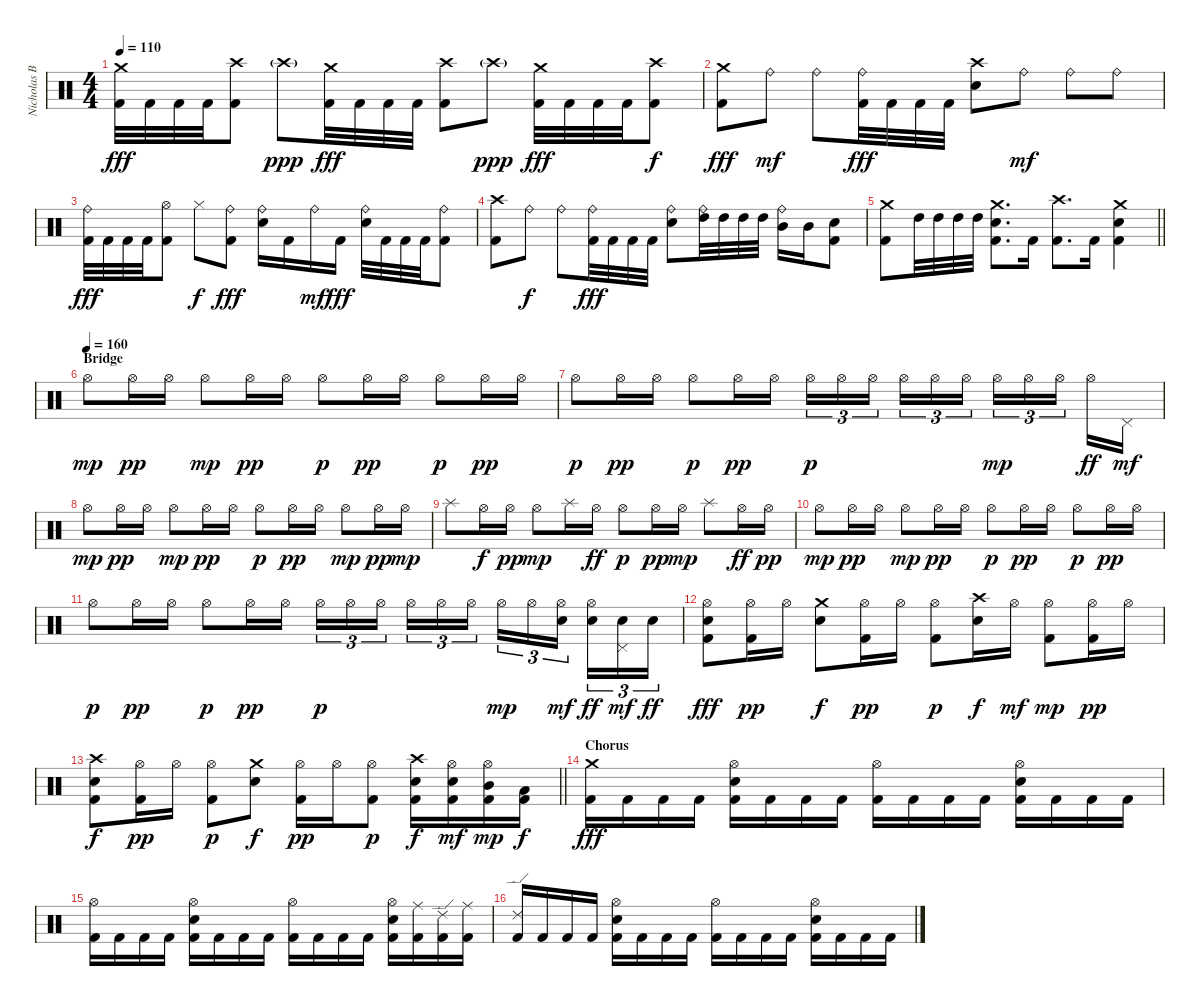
\track ("Nicholas Barker" "Nicholas B") {instrument percussion}
\staff {score}
\articulation defaults
\ts (4 4)
\tempo 110
\clef neutral
\ks c
("Crash medium (hit)" "Kick (hit) 2").32{dy fff} "Kick (hit) 2".32 "Kick (hit) 2".32 "Kick (hit) 2".32 ("Crash high (hit)" "Kick (hit) 2").8 "Crash high (hit)"{g}.8{dy ppp} ("Crash medium (hit)" "Kick (hit) 2").32{dy fff} "Kick (hit) 2".32 "Kick (hit) 2".32 "Kick (hit) 2".32 ("Crash high (hit)" "Kick (hit) 2").8 "Crash high (hit)"{g}.8{dy ppp} ("Crash medium (hit)" "Kick (hit) 2").32{dy fff} "Kick (hit) 2".32 "Kick (hit) 2".32 "Kick (hit) 2".32 ("Crash high (hit)" "Kick (hit) 2").8{dy f} |
("Crash medium (hit)" "Kick (hit) 2").8{dy fff} "Ride (bell)".8{dy mf} "Ride (bell)".8 ("Ride (bell)" "Kick (hit) 2").32{dy fff} "Kick (hit) 2".32 "Kick (hit) 2".32 "Kick (hit) 2".32 ("Crash high (hit)" "Snare (hit) 2").8 "Ride (bell)".8{dy mf} "Ride (bell)".8 "Ride (bell)".8 |
("Ride (bell)" "Kick (hit) 2").32{dy fff} "Kick (hit) 2".32 "Kick (hit) 2".32 "Kick (hit) 2".32 ("Hi-Hat (open)" "Kick (hit) 2").8 "Hi-Hat (closed)".8{dy f} ("Ride (bell)" "Kick (hit) 2").8{dy fff} ("Ride (bell)" "Snare (hit) 2").16 "Kick (hit) 2".16 "Ride (bell)".16{dy mf} "Kick (hit) 2".16{dy fff} ("Ride (bell)" "Snare (hit) 2").32 "Kick (hit) 2".32 "Kick (hit) 2".32 "Kick (hit) 2".32 ("Ride (bell)" "Kick (hit) 2").8 |
("Crash high (hit)" "Kick (hit) 2").8 "Ride (bell)".8{dy f} "Ride (bell)".8 ("Ride (bell)" "Kick (hit) 2").32{dy fff} "Kick (hit) 2".32 "Kick (hit) 2".32 "Kick (hit) 2".32 ("Ride (bell)" "Snare (hit) 2").8 ("Ride (bell)" "High Tom (hit)").32 "High Tom (hit)".32 "High Tom (hit)".32 "High Tom (hit)".32 ("Ride (bell)" "Mid Tom (hit)").16 "Mid Tom (hit)".16 ("Snare (hit) 2" "Kick (hit) 2").8 |
\barLineRight lightlight
("Crash medium (hit)" "Kick (hit) 2").8 "High Tom (hit)".32 "High Tom (hit)".32 "High Tom (hit)".32 "High Tom (hit)".32 ("Crash medium (hit)" "Snare (hit) 2" "Kick (hit) 2").8{d} "Kick (hit) 2".16 ("Crash high (hit)" "Kick (hit) 2").8{d} "Kick (hit) 2".16 ("Crash medium (hit)" "Snare (hit) 2" "Kick (hit) 2").4 |
\section ("" "Bridge")
\tempo (160)
"Hi-Hat (open)".8{dy mp} "Hi-Hat (open)".16{dy pp} "Hi-Hat (open)".16 "Hi-Hat (open)".8{dy mp} "Hi-Hat (open)".16{dy pp} "Hi-Hat (open)".16 "Hi-Hat (open)".8{dy p} "Hi-Hat (open)".16{dy pp} "Hi-Hat (open)".16 "Hi-Hat (open)".8{dy p} "Hi-Hat (open)".16{dy pp} "Hi-Hat (open)".16 |
"Hi-Hat (open)".8{dy p} "Hi-Hat (open)".16{dy pp} "Hi-Hat (open)".16 "Hi-Hat (open)".8{dy p} "Hi-Hat (open)".16{dy pp} "Hi-Hat (open)".16 "Hi-Hat (open)".16{tu (3 2) dy p} "Hi-Hat (open)".16{tu (3 2)} "Hi-Hat (open)".16{tu (3 2) beam splitsecondary} "Hi-Hat (open)".16{tu (3 2)} "Hi-Hat (open)".16{tu (3 2)} "Hi-Hat (open)".16{tu (3 2)} "Hi-Hat (open)".16{tu (3 2) dy mp} "Hi-Hat (open)".16{tu (3 2)} "Hi-Hat (open)".16{tu (3 2) beam splitsecondary} "Hi-Hat (open)".16{dy ff} "Pedal Hi-Hat (hit)".16{dy mf} |
"Hi-Hat (open)".8{dy mp} "Hi-Hat (open)".16{dy pp} "Hi-Hat (open)".16 "Hi-Hat (open)".8{dy mp} "Hi-Hat (open)".16{dy pp} "Hi-Hat (open)".16 "Hi-Hat (open)".8{dy p} "Hi-Hat (open)".16{dy pp} "Hi-Hat (open)".16 "Hi-Hat (open)".8{dy mp} "Hi-Hat (open)".16{dy pp} "Hi-Hat (open)".16{dy mp} |
"Splash (hit)".8 "Hi-Hat (open)".16{dy f} "Hi-Hat (open)".16{dy pp} "Hi-Hat (open)".8{dy mp} "Splash (hit)".16 "Hi-Hat (open)".16{dy ff} "Hi-Hat (open)".8{dy p} "Hi-Hat (open)".16{dy pp} "Hi-Hat (open)".16{dy mp} "Splash (hit)".8 "Hi-Hat (open)".16{dy ff} "Hi-Hat (open)".16{dy pp} |
"Hi-Hat (open)".8{dy mp} "Hi-Hat (open)".16{dy pp} "Hi-Hat (open)".16 "Hi-Hat (open)".8{dy mp} "Hi-Hat (open)".16{dy pp} "Hi-Hat (open)".16 "Hi-Hat (open)".8{dy p} "Hi-Hat (open)".16{dy pp} "Hi-Hat (open)".16 "Hi-Hat (open)".8{dy p} "Hi-Hat (open)".16{dy pp} "Hi-Hat (open)".16 |
"Hi-Hat (open)".8{dy p} "Hi-Hat (open)".16{dy pp} "Hi-Hat (open)".16 "Hi-Hat (open)".8{dy p} "Hi-Hat (open)".16{dy pp} "Hi-Hat (open)".16 "Hi-Hat (open)".16{tu (3 2) dy p} "Hi-Hat (open)".16{tu (3 2)} "Hi-Hat (open)".16{tu (3 2) beam splitsecondary} "Hi-Hat (open)".16{tu (3 2)} "Hi-Hat (open)".16{tu (3 2)} "Hi-Hat (open)".16{tu (3 2)} "Hi-Hat (open)".16{tu (3 2) dy mp} "Hi-Hat (open)".16{tu (3 2)} ("Hi-Hat (open)" "Snare (hit) 2").16{tu (3 2) dy mf beam splitsecondary} ("Hi-Hat (open)" "Snare (hit) 2").16{tu (3 2) dy ff} ("Pedal Hi-Hat (hit)" "Snare (hit) 2").16{tu (3 2) dy mf} "Snare (hit) 2".16{tu (3 2) dy ff} |
("Hi-Hat (open)" "Snare (hit) 2" "Kick (hit) 2").8{dy fff} ("Hi-Hat (open)" "Kick (hit) 2").16{dy pp} "Hi-Hat (open)".16 ("Crash medium (hit)" "Snare (hit) 2").8{dy f} ("Hi-Hat (open)" "Kick (hit) 2").16{dy pp} "Hi-Hat (open)".16 ("Hi-Hat (open)" "Kick (hit) 2").8{dy p} ("Crash high (hit)" "Snare (hit) 2").16{dy f} "Hi-Hat (open)".16{dy mf} ("Hi-Hat (open)" "Kick (hit) 2").8{dy mp} ("Hi-Hat (open)" "Kick (hit) 2").16{dy pp} "Hi-Hat (open)".16 |
\barLineRight lightlight
("Crash high (hit)" "Snare (hit) 2" "Kick (hit) 2").8{dy f} ("Hi-Hat (open)" "Kick (hit) 2").16{dy pp} "Hi-Hat (open)".16 ("Hi-Hat (open)" "Kick (hit) 2").8{dy p} ("Crash medium (hit)" "Snare (hit) 2").8{dy f} ("Hi-Hat (open)" "Kick (hit) 2").16{dy pp} "Hi-Hat (open)".16 ("Hi-Hat (open)" "Kick (hit) 2").8{dy p} ("Crash high (hit)" "Snare (hit) 2" "Kick (hit) 2").16{dy f} ("Hi-Hat (open)" "Snare (hit) 2" "Kick (hit) 2").16{dy mf} ("Hi-Hat (open)" "Mid Tom (hit)" "Kick (hit) 2").16{dy mp} ("Low Tom (hit)" "Kick (hit) 2").16{dy f} |
\section ("" "Chorus")
("Crash medium (hit)" "Kick (hit) 2").16{dy fff} "Kick (hit) 2".16 "Kick (hit) 2".16 "Kick (hit) 2".16 ("Hi-Hat (open)" "Snare (hit) 2" "Kick (hit) 2").16 "Kick (hit) 2".16 "Kick (hit) 2".16 "Kick (hit) 2".16 ("Hi-Hat (open)" "Kick (hit) 2").16 "Kick (hit) 2".16 "Kick (hit) 2".16 "Kick (hit) 2".16 ("Hi-Hat (open)" "Snare (hit) 2" "Kick (hit) 2").16 "Kick (hit) 2".16 "Kick (hit) 2".16 "Kick (hit) 2".16 |
("Hi-Hat (open)" "Kick (hit) 2").16 "Kick (hit) 2".16 "Kick (hit) 2".16 "Kick (hit) 2".16 ("Hi-Hat (open)" "Snare (hit) 2" "Kick (hit) 2").16 "Kick (hit) 2".16 "Kick (hit) 2".16 "Kick (hit) 2".16 ("Hi-Hat (open)" "Kick (hit) 2").16 "Kick (hit) 2".16 "Kick (hit) 2".16 "Kick (hit) 2".16 ("Hi-Hat (open)" "Snare (hit) 2" "Kick (hit) 2").16 ("Ride (middle)" "Kick (hit) 2").16 ("Ride (edge) 2" "Kick (hit) 2").16 ("Ride (middle)" "Kick (hit) 2").16 |
("Ride (edge) 2" "Kick (hit) 2").16 "Kick (hit) 2".16 "Kick (hit) 2".16 "Kick (hit) 2".16 ("Hi-Hat (open)" "Snare (hit) 2" "Kick (hit) 2").16 "Kick (hit) 2".16 "Kick (hit) 2".16 "Kick (hit) 2".16 ("Hi-Hat (open)" "Kick (hit) 2").16 "Kick (hit) 2".16 "Kick (hit) 2".16 "Kick (hit) 2".16 ("Hi-Hat (open)" "Snare (hit) 2" "Kick (hit) 2").16 "Kick (hit) 2".16 "Kick (hit) 2".16 "Kick (hit) 2".16
